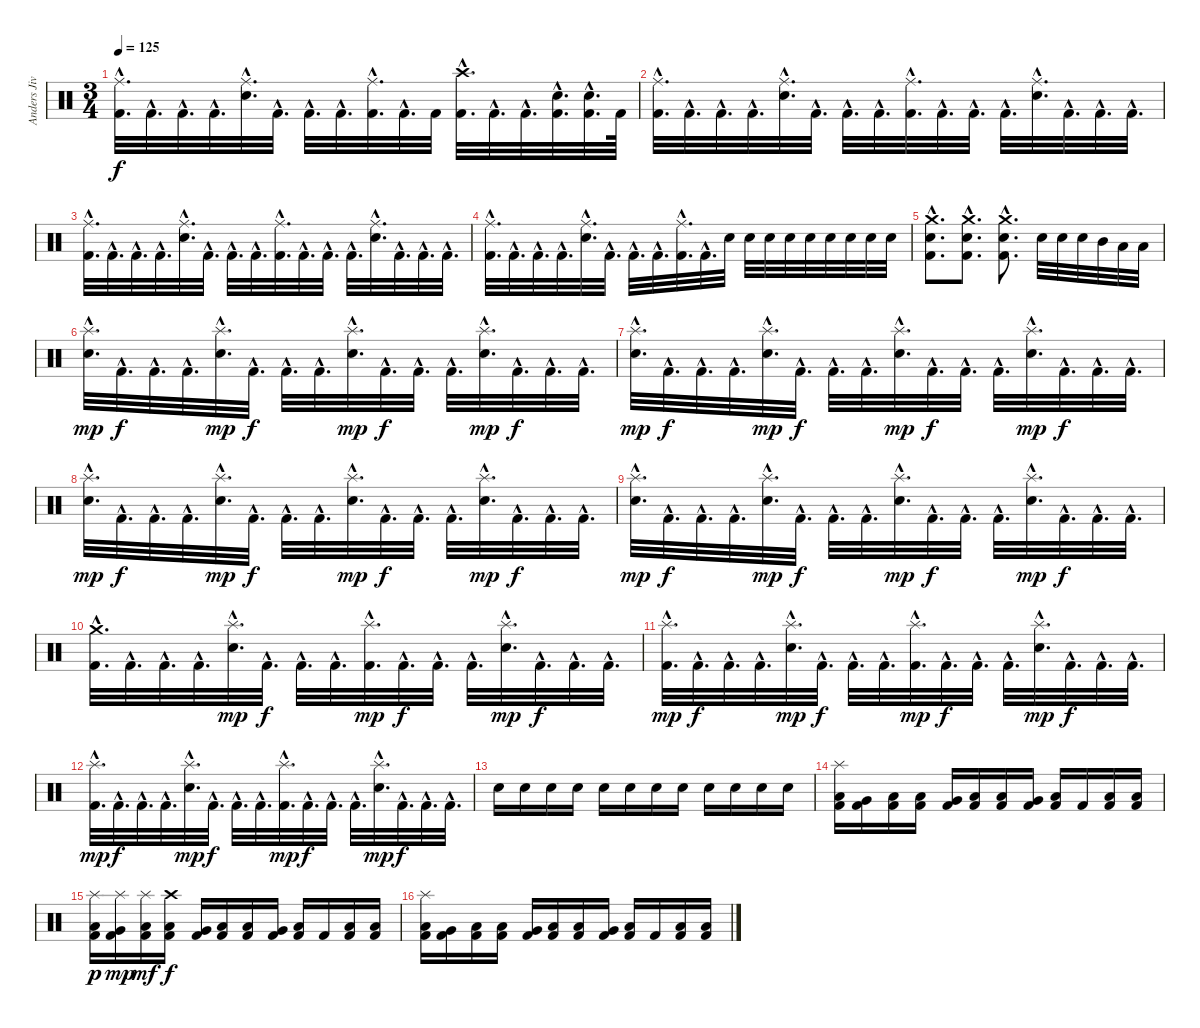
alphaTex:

\track ("Anders Jivarp" "Anders Jiv") {instrument percussion}
\staff {score}
\articulation defaults
\ts (3 4)
\tempo 125
\clef neutral
\ks c
("Ride (middle)"{hac} "Kick (hit) 2"{hac}).32{d dy f} "Kick (hit) 2"{hac}.32{d} "Kick (hit) 2"{hac}.32{d} "Kick (hit) 2"{hac}.32{d} ("Ride (middle)"{hac} "Electric Snare (hit)"{hac}).32{d} "Kick (hit) 2"{hac}.32{d} "Kick (hit) 2"{hac}.32{d} "Kick (hit) 2"{hac}.32{d} ("Ride (middle)"{hac} "Kick (hit) 2"{hac}).32{d} "Kick (hit) 2"{hac}.32{d} "Kick (hit) 2".32 ("Crash high (hit)"{hac} "Kick (hit) 2"{hac}).32{d} "Kick (hit) 2"{hac}.32{d} "Kick (hit) 2"{hac}.32{d} ("Electric Snare (hit)"{hac} "Kick (hit) 2"{hac}).32{d} ("Electric Snare (hit)"{hac} "Kick (hit) 2"{hac}).32{d} "Kick (hit) 2".64 |
("Ride (middle)"{hac} "Kick (hit) 2"{hac}).32{d} "Kick (hit) 2"{hac}.32{d} "Kick (hit) 2"{hac}.32{d} "Kick (hit) 2"{hac}.32{d} ("Ride (middle)"{hac} "Electric Snare (hit)"{hac}).32{d} "Kick (hit) 2"{hac}.32{d} "Kick (hit) 2"{hac}.32{d} "Kick (hit) 2"{hac}.32{d} ("Ride (middle)"{hac} "Kick (hit) 2"{hac}).32{d} "Kick (hit) 2"{hac}.32{d} "Kick (hit) 2"{hac}.32{d} "Kick (hit) 2"{hac}.32{d} ("Ride (middle)"{hac} "Electric Snare (hit)"{hac}).32{d} "Kick (hit) 2"{hac}.32{d} "Kick (hit) 2"{hac}.32{d} "Kick (hit) 2"{hac}.32{d} |
("Ride (middle)"{hac} "Kick (hit) 2"{hac}).32{d} "Kick (hit) 2"{hac}.32{d} "Kick (hit) 2"{hac}.32{d} "Kick (hit) 2"{hac}.32{d} ("Ride (middle)"{hac} "Electric Snare (hit)"{hac}).32{d} "Kick (hit) 2"{hac}.32{d} "Kick (hit) 2"{hac}.32{d} "Kick (hit) 2"{hac}.32{d} ("Ride (middle)"{hac} "Kick (hit) 2"{hac}).32{d} "Kick (hit) 2"{hac}.32{d} "Kick (hit) 2"{hac}.32{d} "Kick (hit) 2"{hac}.32{d} ("Ride (middle)"{hac} "Electric Snare (hit)"{hac}).32{d} "Kick (hit) 2"{hac}.32{d} "Kick (hit) 2"{hac}.32{d} "Kick (hit) 2"{hac}.32{d} |
("Ride (middle)"{hac} "Kick (hit) 2"{hac}).32{d} "Kick (hit) 2"{hac}.32{d} "Kick (hit) 2"{hac}.32{d} "Kick (hit) 2"{hac}.32{d} ("Ride (middle)"{hac} "Electric Snare (hit)"{hac}).32{d} "Kick (hit) 2"{hac}.32{d} "Kick (hit) 2"{hac}.32{d} "Kick (hit) 2"{hac}.32{d} ("Ride (middle)"{hac} "Kick (hit) 2"{hac}).32{d} "Kick (hit) 2"{hac}.32{d} "Electric Snare (hit)".32 "Electric Snare (hit)".32 "Electric Snare (hit)".32 "Electric Snare (hit)".32 "Electric Snare (hit)".32 "Electric Snare (hit)".32 "Electric Snare (hit)".32 "Electric Snare (hit)".32 "Electric Snare (hit)".32 |
("Crash medium (hit)"{hac} "Electric Snare (hit)"{hac} "Kick (hit) 2"{hac}).8{d} ("Crash medium (hit)"{hac} "Electric Snare (hit)"{hac} "Kick (hit) 2"{hac}).8{d} ("Crash medium (hit)"{hac} "Electric Snare (hit)"{hac} "Kick (hit) 2"{hac}).8{d} "Electric Snare (hit)".32 "Electric Snare (hit)".32 "Electric Snare (hit)".32 "Mid Tom (hit)".32 "Low Tom (hit)".32 "Low Floor Tom (hit)".32 |
("Splash (hit)"{hac} "Electric Snare (hit)"{hac}).32{d dy mp} "Kick (hit) 2"{hac}.32{d dy f} "Kick (hit) 2"{hac}.32{d} "Kick (hit) 2"{hac}.32{d} ("Splash (hit)"{hac} "Electric Snare (hit)"{hac}).32{d dy mp} "Kick (hit) 2"{hac}.32{d dy f} "Kick (hit) 2"{hac}.32{d} "Kick (hit) 2"{hac}.32{d} ("Splash (hit)"{hac} "Electric Snare (hit)"{hac}).32{d dy mp} "Kick (hit) 2"{hac}.32{d dy f} "Kick (hit) 2"{hac}.32{d} "Kick (hit) 2"{hac}.32{d} ("Splash (hit)"{hac} "Electric Snare (hit)"{hac}).32{d dy mp} "Kick (hit) 2"{hac}.32{d dy f} "Kick (hit) 2"{hac}.32{d} "Kick (hit) 2"{hac}.32{d} |
("Splash (hit)"{hac} "Electric Snare (hit)"{hac}).32{d dy mp} "Kick (hit) 2"{hac}.32{d dy f} "Kick (hit) 2"{hac}.32{d} "Kick (hit) 2"{hac}.32{d} ("Splash (hit)"{hac} "Electric Snare (hit)"{hac}).32{d dy mp} "Kick (hit) 2"{hac}.32{d dy f} "Kick (hit) 2"{hac}.32{d} "Kick (hit) 2"{hac}.32{d} ("Splash (hit)"{hac} "Electric Snare (hit)"{hac}).32{d dy mp} "Kick (hit) 2"{hac}.32{d dy f} "Kick (hit) 2"{hac}.32{d} "Kick (hit) 2"{hac}.32{d} ("Splash (hit)"{hac} "Electric Snare (hit)"{hac}).32{d dy mp} "Kick (hit) 2"{hac}.32{d dy f} "Kick (hit) 2"{hac}.32{d} "Kick (hit) 2"{hac}.32{d} |
("Splash (hit)"{hac} "Electric Snare (hit)"{hac}).32{d dy mp} "Kick (hit) 2"{hac}.32{d dy f} "Kick (hit) 2"{hac}.32{d} "Kick (hit) 2"{hac}.32{d} ("Splash (hit)"{hac} "Electric Snare (hit)"{hac}).32{d dy mp} "Kick (hit) 2"{hac}.32{d dy f} "Kick (hit) 2"{hac}.32{d} "Kick (hit) 2"{hac}.32{d} ("Splash (hit)"{hac} "Electric Snare (hit)"{hac}).32{d dy mp} "Kick (hit) 2"{hac}.32{d dy f} "Kick (hit) 2"{hac}.32{d} "Kick (hit) 2"{hac}.32{d} ("Splash (hit)"{hac} "Electric Snare (hit)"{hac}).32{d dy mp} "Kick (hit) 2"{hac}.32{d dy f} "Kick (hit) 2"{hac}.32{d} "Kick (hit) 2"{hac}.32{d} |
("Splash (hit)"{hac} "Electric Snare (hit)"{hac}).32{d dy mp} "Kick (hit) 2"{hac}.32{d dy f} "Kick (hit) 2"{hac}.32{d} "Kick (hit) 2"{hac}.32{d} ("Splash (hit)"{hac} "Electric Snare (hit)"{hac}).32{d dy mp} "Kick (hit) 2"{hac}.32{d dy f} "Kick (hit) 2"{hac}.32{d} "Kick (hit) 2"{hac}.32{d} ("Splash (hit)"{hac} "Electric Snare (hit)"{hac}).32{d dy mp} "Kick (hit) 2"{hac}.32{d dy f} "Kick (hit) 2"{hac}.32{d} "Kick (hit) 2"{hac}.32{d} ("Splash (hit)"{hac} "Electric Snare (hit)"{hac}).32{d dy mp} "Kick (hit) 2"{hac}.32{d dy f} "Kick (hit) 2"{hac}.32{d} "Kick (hit) 2"{hac}.32{d} |
("Crash medium (hit)"{hac} "Kick (hit) 2"{hac}).32{d} "Kick (hit) 2"{hac}.32{d} "Kick (hit) 2"{hac}.32{d} "Kick (hit) 2"{hac}.32{d} ("Splash (hit)"{hac} "Electric Snare (hit)"{hac}).32{d dy mp} "Kick (hit) 2"{hac}.32{d dy f} "Kick (hit) 2"{hac}.32{d} "Kick (hit) 2"{hac}.32{d} ("Splash (hit)"{hac} "Kick (hit) 2"{hac}).32{d dy mp} "Kick (hit) 2"{hac}.32{d dy f} "Kick (hit) 2"{hac}.32{d} "Kick (hit) 2"{hac}.32{d} ("Splash (hit)"{hac} "Electric Snare (hit)"{hac}).32{d dy mp} "Kick (hit) 2"{hac}.32{d dy f} "Kick (hit) 2"{hac}.32{d} "Kick (hit) 2"{hac}.32{d} |
("Splash (hit)"{hac} "Kick (hit) 2"{hac}).32{d dy mp} "Kick (hit) 2"{hac}.32{d dy f} "Kick (hit) 2"{hac}.32{d} "Kick (hit) 2"{hac}.32{d} ("Splash (hit)"{hac} "Electric Snare (hit)"{hac}).32{d dy mp} "Kick (hit) 2"{hac}.32{d dy f} "Kick (hit) 2"{hac}.32{d} "Kick (hit) 2"{hac}.32{d} ("Splash (hit)"{hac} "Kick (hit) 2"{hac}).32{d dy mp} "Kick (hit) 2"{hac}.32{d dy f} "Kick (hit) 2"{hac}.32{d} "Kick (hit) 2"{hac}.32{d} ("Splash (hit)"{hac} "Electric Snare (hit)"{hac}).32{d dy mp} "Kick (hit) 2"{hac}.32{d dy f} "Kick (hit) 2"{hac}.32{d} "Kick (hit) 2"{hac}.32{d} |
("Splash (hit)"{hac} "Kick (hit) 2"{hac}).32{d dy mp} "Kick (hit) 2"{hac}.32{d dy f} "Kick (hit) 2"{hac}.32{d} "Kick (hit) 2"{hac}.32{d} ("Splash (hit)"{hac} "Electric Snare (hit)"{hac}).32{d dy mp} "Kick (hit) 2"{hac}.32{d dy f} "Kick (hit) 2"{hac}.32{d} "Kick (hit) 2"{hac}.32{d} ("Splash (hit)"{hac} "Kick (hit) 2"{hac}).32{d dy mp} "Kick (hit) 2"{hac}.32{d dy f} "Kick (hit) 2"{hac}.32{d} "Kick (hit) 2"{hac}.32{d} ("Splash (hit)"{hac} "Electric Snare (hit)"{hac}).32{d dy mp} "Kick (hit) 2"{hac}.32{d dy f} "Kick (hit) 2"{hac}.32{d} "Kick (hit) 2"{hac}.32{d} |
"Electric Snare (hit)".16 "Electric Snare (hit)".16 "Electric Snare (hit)".16 "Electric Snare (hit)".16 "Electric Snare (hit)".16 "Electric Snare (hit)".16 "Electric Snare (hit)".16 "Electric Snare (hit)".16 "Electric Snare (hit)".16 "Electric Snare (hit)".16 "Electric Snare (hit)".16 "Electric Snare (hit)".16 |
("Splash (hit)" "Low Tom (hit)" "Kick (hit) 2").16 ("Very Low Tom (hit)" "Kick (hit) 2").16 ("Low Floor Tom (hit)" "Kick (hit) 2").16 ("Low Tom (hit)" "Kick (hit) 2").16 ("Very Low Tom (hit)" "Kick (hit) 2").16 ("Low Floor Tom (hit)" "Kick (hit) 2").16 ("Low Tom (hit)" "Kick (hit) 2").16 ("Very Low Tom (hit)" "Kick (hit) 2").16 ("Low Floor Tom (hit)" "Kick (hit) 2").16 "Kick (hit) 2".16 ("Low Floor Tom (hit)" "Kick (hit) 2").16 ("Low Floor Tom (hit)" "Kick (hit) 2").16 |
("Splash (hit)" "Low Tom (hit)" "Kick (hit) 2").16{dy p} ("Splash (hit)" "Very Low Tom (hit)" "Kick (hit) 2").16{dy mp} ("Splash (hit)" "Low Floor Tom (hit)" "Kick (hit) 2").16{dy mf} ("Crash high (hit)" "Low Tom (hit)" "Kick (hit) 2").16{dy f} ("Very Low Tom (hit)" "Kick (hit) 2").16 ("Low Floor Tom (hit)" "Kick (hit) 2").16 ("Low Tom (hit)" "Kick (hit) 2").16 ("Very Low Tom (hit)" "Kick (hit) 2").16 ("Low Floor Tom (hit)" "Kick (hit) 2").16 "Kick (hit) 2".16 ("Low Floor Tom (hit)" "Kick (hit) 2").16 ("Low Floor Tom (hit)" "Kick (hit) 2").16 |
("Splash (hit)" "Low Tom (hit)" "Kick (hit) 2").16 ("Very Low Tom (hit)" "Kick (hit) 2").16 ("Low Floor Tom (hit)" "Kick (hit) 2").16 ("Low Tom (hit)" "Kick (hit) 2").16 ("Very Low Tom (hit)" "Kick (hit) 2").16 ("Low Floor Tom (hit)" "Kick (hit) 2").16 ("Low Tom (hit)" "Kick (hit) 2").16 ("Very Low Tom (hit)" "Kick (hit) 2").16 ("Low Floor Tom (hit)" "Kick (hit) 2").16 "Kick (hit) 2".16 ("Low Floor Tom (hit)" "Kick (hit) 2").16 ("Low Floor Tom (hit)" "Kick (hit) 2").16
